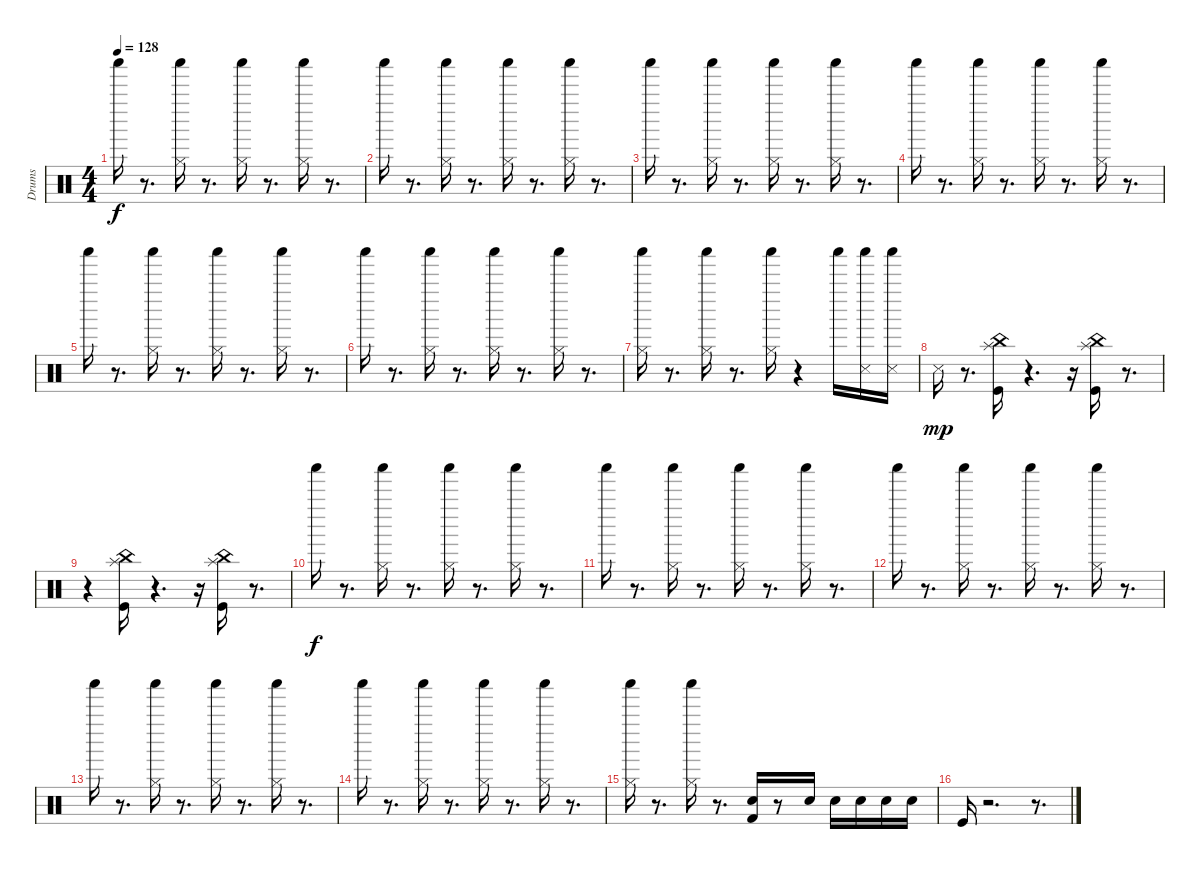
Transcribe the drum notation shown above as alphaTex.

\track ("Drums  " "Drums  ") {instrument percussion}
\staff {score}
\articulation defaults
\ts (4 4)
\tempo 128
\clef neutral
\ks c "Shaker (hit)".16{dy f}
r.8{d} ("Shaker (hit)" "Hi-Hat (closed)").16 r.8{d} ("Shaker (hit)" "Hi-Hat (closed)").16 r.8{d} ("Shaker (hit)" "Hi-Hat (closed)").16 r.8{d} |
"Shaker (hit)".16 r.8{d} ("Shaker (hit)" "Hi-Hat (closed)").16 r.8{d} ("Shaker (hit)" "Hi-Hat (closed)").16 r.8{d} ("Shaker (hit)" "Hi-Hat (closed)").16 r.8{d} |
"Shaker (hit)".16 r.8{d} ("Shaker (hit)" "Hi-Hat (closed)").16 r.8{d} ("Shaker (hit)" "Hi-Hat (closed)").16 r.8{d} ("Shaker (hit)" "Hi-Hat (closed)").16 r.8{d} |
"Shaker (hit)".16 r.8{d} ("Shaker (hit)" "Hi-Hat (closed)").16 r.8{d} ("Shaker (hit)" "Hi-Hat (closed)").16 r.8{d} ("Shaker (hit)" "Hi-Hat (closed)").16 r.8{d} |
"Shaker (hit)".16 r.8{d} ("Shaker (hit)" "Hi-Hat (closed)").16 r.8{d} ("Shaker (hit)" "Hi-Hat (closed)").16 r.8{d} ("Shaker (hit)" "Hi-Hat (closed)").16 r.8{d} |
"Shaker (hit)".16 r.8{d} ("Shaker (hit)" "Hi-Hat (closed)").16 r.8{d} ("Shaker (hit)" "Hi-Hat (closed)").16 r.8{d} ("Shaker (hit)" "Hi-Hat (closed)").16 r.8{d} |
("Shaker (hit)" "Hi-Hat (closed)").16 r.8{d} ("Shaker (hit)" "Hi-Hat (closed)").16 r.8{d} ("Shaker (hit)" "Hi-Hat (closed)").16 r.4 "Shaker (hit)".16 ("Snare (side stick) 3" "Shaker (hit)").16 ("Snare (side stick) 3" "Shaker (hit)").16 |
"Snare (side stick) 3".16{dy mp} r.8{d} ("Splash (hit)" "Kick (hit)" "China (hit)").16 r.4{d} r.16 ("Splash (hit)" "Kick (hit)" "China (hit)").16 r.8{d} |
r.4 ("Splash (hit)" "Kick (hit)" "China (hit)").16 r.4{d} r.16 ("Splash (hit)" "Kick (hit)" "China (hit)").16 r.8{d} |
"Shaker (hit)".16{dy f} r.8{d} ("Shaker (hit)" "Hi-Hat (closed)").16 r.8{d} ("Shaker (hit)" "Hi-Hat (closed)").16 r.8{d} ("Shaker (hit)" "Hi-Hat (closed)").16 r.8{d} |
"Shaker (hit)".16 r.8{d} ("Shaker (hit)" "Hi-Hat (closed)").16 r.8{d} ("Shaker (hit)" "Hi-Hat (closed)").16 r.8{d} ("Shaker (hit)" "Hi-Hat (closed)").16 r.8{d} |
"Shaker (hit)".16 r.8{d} ("Shaker (hit)" "Hi-Hat (closed)").16 r.8{d} ("Shaker (hit)" "Hi-Hat (closed)").16 r.8{d} ("Shaker (hit)" "Hi-Hat (closed)").16 r.8{d} |
"Shaker (hit)".16 r.8{d} ("Shaker (hit)" "Hi-Hat (closed)").16 r.8{d} ("Shaker (hit)" "Hi-Hat (closed)").16 r.8{d} ("Shaker (hit)" "Hi-Hat (closed)").16 r.8{d} |
"Shaker (hit)".16 r.8{d} ("Shaker (hit)" "Hi-Hat (closed)").16 r.8{d} ("Shaker (hit)" "Hi-Hat (closed)").16 r.8{d} ("Shaker (hit)" "Hi-Hat (closed)").16 r.8{d} |
("Shaker (hit)" "Hi-Hat (closed)").16 r.8{d} ("Shaker (hit)" "Hi-Hat (closed)").16 r.8{d} ("Snare (hit) 2" "Kick (hit) 2").16 r.8 "Electric Snare (hit)".16 "Electric Snare (hit)".16 "Electric Snare (hit)".16 "Electric Snare (hit)".16 "Electric Snare (hit)".16 |
"Kick (hit)".16 r.2{d} r.8{d}
